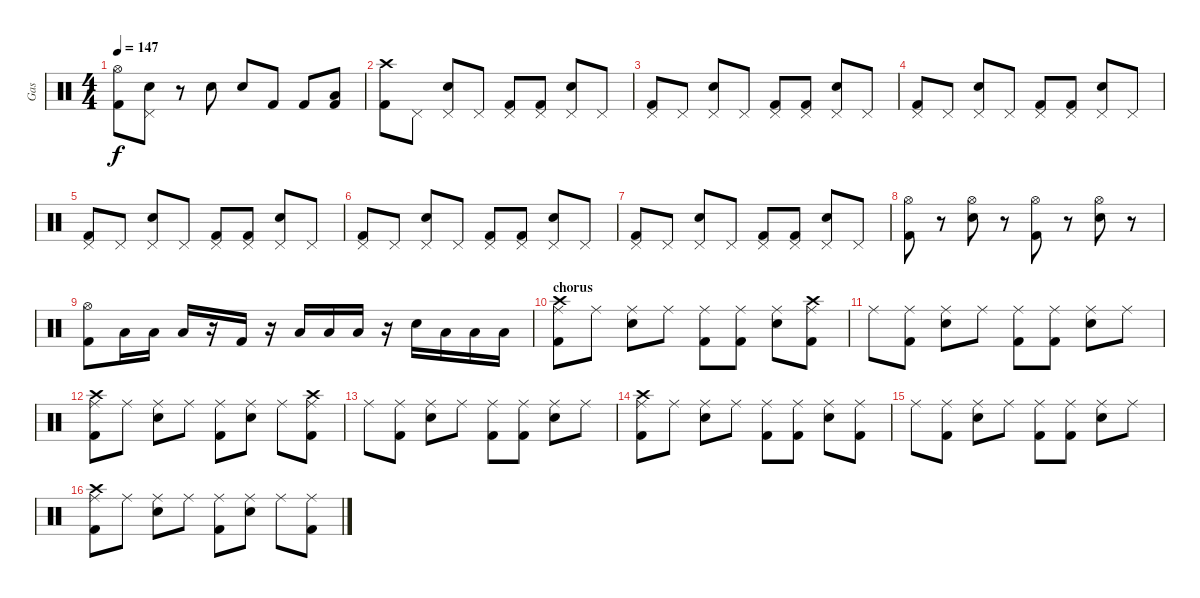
\track ("Gas" "Gas") {instrument percussion}
\staff {score}
\articulation defaults
\ts (4 4)
\tempo 147
\clef neutral
\ks c
("Hi-Hat (open)" "Kick (hit) 2").8{dy f} ("Pedal Hi-Hat (hit)" "Electric Snare (hit)").8 r.8 "Electric Snare (hit)".8 "Electric Snare (hit)".8 "Kick (hit) 2".8 "Kick (hit) 2".8 ("Low Tom (hit)" "Kick (hit) 2").8 |
("Crash high (hit)" "Kick (hit) 2").8 "Pedal Hi-Hat (hit)".8 ("Pedal Hi-Hat (hit)" "Electric Snare (hit)").8 "Pedal Hi-Hat (hit)".8 ("Pedal Hi-Hat (hit)" "Kick (hit) 2").8 ("Pedal Hi-Hat (hit)" "Kick (hit) 2").8 ("Pedal Hi-Hat (hit)" "Electric Snare (hit)").8 "Pedal Hi-Hat (hit)".8 |
("Pedal Hi-Hat (hit)" "Kick (hit) 2").8 "Pedal Hi-Hat (hit)".8 ("Pedal Hi-Hat (hit)" "Electric Snare (hit)").8 "Pedal Hi-Hat (hit)".8 ("Pedal Hi-Hat (hit)" "Kick (hit) 2").8 ("Pedal Hi-Hat (hit)" "Kick (hit) 2").8 ("Pedal Hi-Hat (hit)" "Electric Snare (hit)").8 "Pedal Hi-Hat (hit)".8 |
("Pedal Hi-Hat (hit)" "Kick (hit) 2").8 "Pedal Hi-Hat (hit)".8 ("Pedal Hi-Hat (hit)" "Electric Snare (hit)").8 "Pedal Hi-Hat (hit)".8 ("Pedal Hi-Hat (hit)" "Kick (hit) 2").8 ("Pedal Hi-Hat (hit)" "Kick (hit) 2").8 ("Pedal Hi-Hat (hit)" "Electric Snare (hit)").8 "Pedal Hi-Hat (hit)".8 |
("Pedal Hi-Hat (hit)" "Kick (hit) 2").8 "Pedal Hi-Hat (hit)".8 ("Pedal Hi-Hat (hit)" "Electric Snare (hit)").8 "Pedal Hi-Hat (hit)".8 ("Pedal Hi-Hat (hit)" "Kick (hit) 2").8 ("Pedal Hi-Hat (hit)" "Kick (hit) 2").8 ("Pedal Hi-Hat (hit)" "Electric Snare (hit)").8 "Pedal Hi-Hat (hit)".8 |
("Pedal Hi-Hat (hit)" "Kick (hit) 2").8 "Pedal Hi-Hat (hit)".8 ("Pedal Hi-Hat (hit)" "Electric Snare (hit)").8 "Pedal Hi-Hat (hit)".8 ("Pedal Hi-Hat (hit)" "Kick (hit) 2").8 ("Pedal Hi-Hat (hit)" "Kick (hit) 2").8 ("Pedal Hi-Hat (hit)" "Electric Snare (hit)").8 "Pedal Hi-Hat (hit)".8 |
("Pedal Hi-Hat (hit)" "Kick (hit) 2").8 "Pedal Hi-Hat (hit)".8 ("Pedal Hi-Hat (hit)" "Electric Snare (hit)").8 "Pedal Hi-Hat (hit)".8 ("Pedal Hi-Hat (hit)" "Kick (hit) 2").8 ("Pedal Hi-Hat (hit)" "Kick (hit) 2").8 ("Pedal Hi-Hat (hit)" "Electric Snare (hit)").8 "Pedal Hi-Hat (hit)".8 |
("Hi-Hat (open)" "Kick (hit) 2").8 r.8 ("Hi-Hat (open)" "Electric Snare (hit)").8 r.8 ("Hi-Hat (open)" "Kick (hit) 2").8 r.8 ("Hi-Hat (open)" "Electric Snare (hit)").8 r.8 |
("Hi-Hat (open)" "Kick (hit) 2").8 "Low Tom (hit)".16 "Low Tom (hit)".16 "Low Tom (hit)".16 r.16 "Kick (hit) 2".16 r.16 "Low Tom (hit)".16 "Low Tom (hit)".16 "Low Tom (hit)".16 r.16 "Electric Snare (hit)".16 "Low Tom (hit)".16 "Low Tom (hit)".16 "Low Tom (hit)".16 |
\section ("" "chorus")
("Ride (middle)" "Crash high (hit)" "Kick (hit) 2").8 "Ride (middle)".8 ("Ride (middle)" "Electric Snare (hit)").8 "Ride (middle)".8 ("Ride (middle)" "Kick (hit) 2").8 ("Ride (middle)" "Kick (hit) 2").8 ("Ride (middle)" "Electric Snare (hit)").8 ("Ride (middle)" "Crash high (hit)" "Kick (hit) 2").8 |
"Ride (middle)".8 ("Ride (middle)" "Kick (hit) 2").8 ("Ride (middle)" "Electric Snare (hit)").8 "Ride (middle)".8 ("Ride (middle)" "Kick (hit) 2").8 ("Ride (middle)" "Kick (hit) 2").8 ("Ride (middle)" "Electric Snare (hit)").8 "Ride (middle)".8 |
("Ride (middle)" "Crash high (hit)" "Kick (hit) 2").8 "Ride (middle)".8 ("Ride (middle)" "Electric Snare (hit)").8 "Ride (middle)".8 ("Ride (middle)" "Kick (hit) 2").8 ("Ride (middle)" "Electric Snare (hit)").8 "Ride (middle)".8 ("Ride (middle)" "Crash high (hit)" "Kick (hit) 2").8 |
"Ride (middle)".8 ("Ride (middle)" "Kick (hit) 2").8 ("Ride (middle)" "Electric Snare (hit)").8 "Ride (middle)".8 ("Ride (middle)" "Kick (hit) 2").8 ("Ride (middle)" "Kick (hit) 2").8 ("Ride (middle)" "Electric Snare (hit)").8 "Ride (middle)".8 |
("Ride (middle)" "Crash high (hit)" "Kick (hit) 2").8 "Ride (middle)".8 ("Ride (middle)" "Electric Snare (hit)").8 "Ride (middle)".8 ("Ride (middle)" "Kick (hit) 2").8 ("Ride (middle)" "Kick (hit) 2").8 ("Ride (middle)" "Electric Snare (hit)").8 ("Ride (middle)" "Kick (hit) 2").8 |
"Ride (middle)".8 ("Ride (middle)" "Kick (hit) 2").8 ("Ride (middle)" "Electric Snare (hit)").8 "Ride (middle)".8 ("Ride (middle)" "Kick (hit) 2").8 ("Ride (middle)" "Kick (hit) 2").8 ("Ride (middle)" "Electric Snare (hit)").8 "Ride (middle)".8 |
("Ride (middle)" "Crash high (hit)" "Kick (hit) 2").8 "Ride (middle)".8 ("Ride (middle)" "Electric Snare (hit)").8 "Ride (middle)".8 ("Ride (middle)" "Kick (hit) 2").8 ("Ride (middle)" "Electric Snare (hit)").8 "Ride (middle)".8 ("Ride (middle)" "Kick (hit) 2").8
